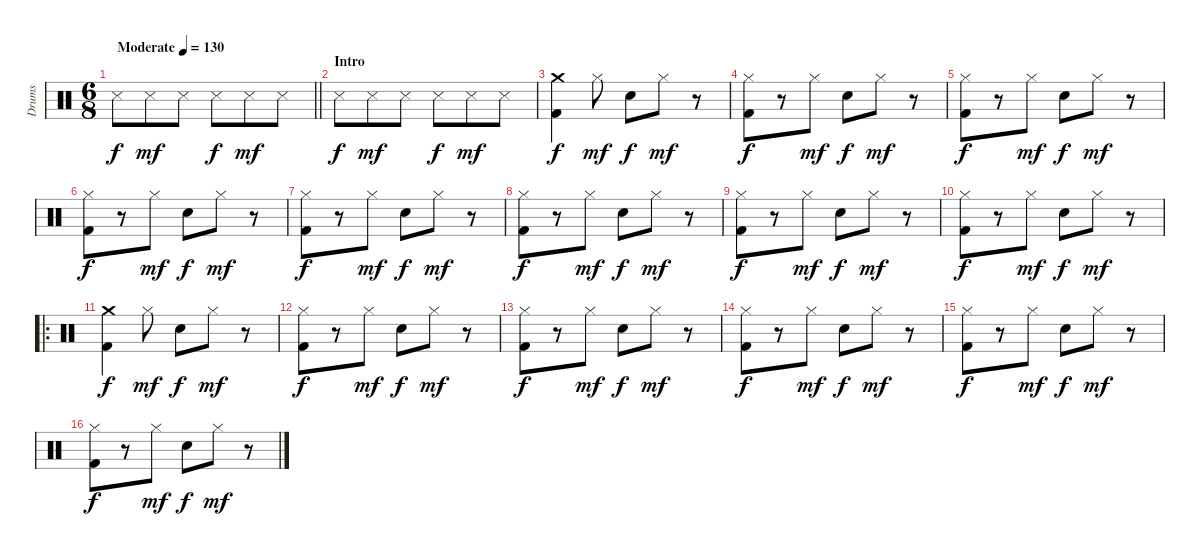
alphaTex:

\track ("Drums" "Drums") {instrument percussion}
\staff {score}
\articulation defaults
\ts (6 8)
\tempo (130 "Moderate")
\clef neutral
\barLineRight lightlight
\ks c "Metronome (hit)".8{dy f} "Metronome (hit)".8{dy mf} "Metronome (hit)".8 "Metronome (hit)".8{dy f} "Metronome (hit)".8{dy mf} "Metronome (hit)".8
|
\section ("" "Intro")
"Metronome (hit)".8{dy f} "Metronome (hit)".8{dy mf} "Metronome (hit)".8 "Metronome (hit)".8{dy f} "Metronome (hit)".8{dy mf} "Metronome (hit)".8 |
("Crash medium (hit)" "Kick (hit) 2").4{dy f} "Hi-Hat (closed)".8{dy mf} "Snare (hit) 2".8{dy f} "Hi-Hat (closed)".8{dy mf} r.8 |
("Hi-Hat (closed)" "Kick (hit) 2").8{dy f} r.8 "Hi-Hat (closed)".8{dy mf} "Snare (hit) 2".8{dy f} "Hi-Hat (closed)".8{dy mf} r.8 |
("Hi-Hat (closed)" "Kick (hit) 2").8{dy f} r.8 "Hi-Hat (closed)".8{dy mf} "Snare (hit) 2".8{dy f} "Hi-Hat (closed)".8{dy mf} r.8 |
("Hi-Hat (closed)" "Kick (hit) 2").8{dy f} r.8 "Hi-Hat (closed)".8{dy mf} "Snare (hit) 2".8{dy f} "Hi-Hat (closed)".8{dy mf} r.8 |
("Hi-Hat (closed)" "Kick (hit) 2").8{dy f} r.8 "Hi-Hat (closed)".8{dy mf} "Snare (hit) 2".8{dy f} "Hi-Hat (closed)".8{dy mf} r.8 |
("Hi-Hat (closed)" "Kick (hit) 2").8{dy f} r.8 "Hi-Hat (closed)".8{dy mf} "Snare (hit) 2".8{dy f} "Hi-Hat (closed)".8{dy mf} r.8 |
("Hi-Hat (closed)" "Kick (hit) 2").8{dy f} r.8 "Hi-Hat (closed)".8{dy mf} "Snare (hit) 2".8{dy f} "Hi-Hat (closed)".8{dy mf} r.8 |
("Hi-Hat (closed)" "Kick (hit) 2").8{dy f} r.8 "Hi-Hat (closed)".8{dy mf} "Snare (hit) 2".8{dy f} "Hi-Hat (closed)".8{dy mf} r.8 |
\ro
("Crash medium (hit)" "Kick (hit) 2").4{dy f} "Hi-Hat (closed)".8{dy mf} "Snare (hit) 2".8{dy f} "Hi-Hat (closed)".8{dy mf} r.8 |
("Hi-Hat (closed)" "Kick (hit) 2").8{dy f} r.8 "Hi-Hat (closed)".8{dy mf} "Snare (hit) 2".8{dy f} "Hi-Hat (closed)".8{dy mf} r.8 |
("Hi-Hat (closed)" "Kick (hit) 2").8{dy f} r.8 "Hi-Hat (closed)".8{dy mf} "Snare (hit) 2".8{dy f} "Hi-Hat (closed)".8{dy mf} r.8 |
("Hi-Hat (closed)" "Kick (hit) 2").8{dy f} r.8 "Hi-Hat (closed)".8{dy mf} "Snare (hit) 2".8{dy f} "Hi-Hat (closed)".8{dy mf} r.8 |
("Hi-Hat (closed)" "Kick (hit) 2").8{dy f} r.8 "Hi-Hat (closed)".8{dy mf} "Snare (hit) 2".8{dy f} "Hi-Hat (closed)".8{dy mf} r.8 |
("Hi-Hat (closed)" "Kick (hit) 2").8{dy f} r.8 "Hi-Hat (closed)".8{dy mf} "Snare (hit) 2".8{dy f} "Hi-Hat (closed)".8{dy mf} r.8
